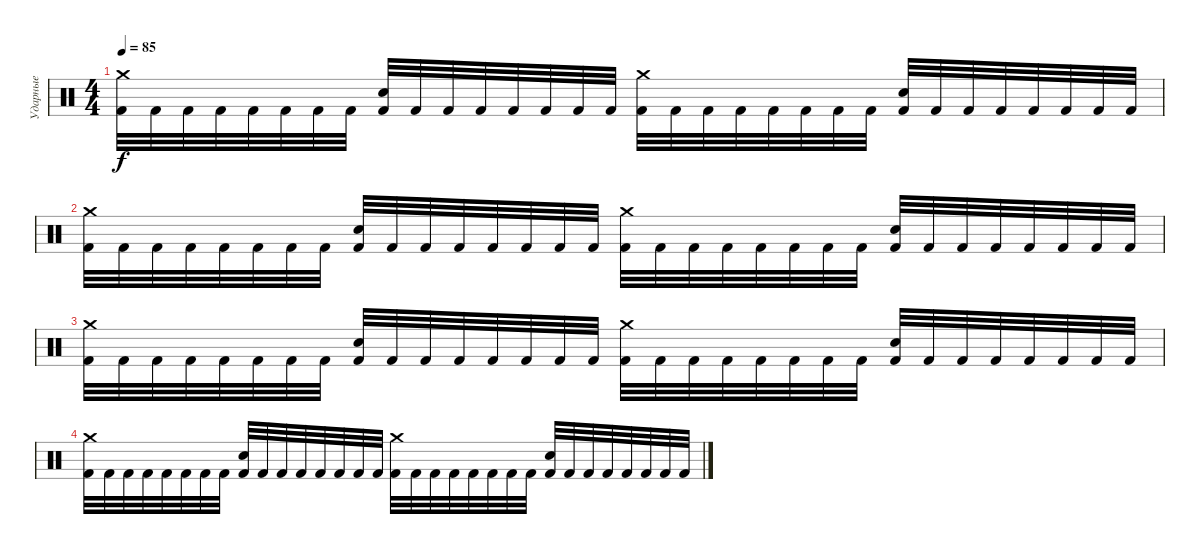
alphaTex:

\track ("Ударные" "Ударные") {instrument percussion}
\staff {score}
\articulation defaults
\ts (4 4)
\tempo 85
\clef neutral
\ks c
("Crash medium (hit)" "Kick (hit) 2").32{dy f} "Kick (hit) 2".32 "Kick (hit) 2".32 "Kick (hit) 2".32 "Kick (hit) 2".32 "Kick (hit) 2".32 "Kick (hit) 2".32 "Kick (hit) 2".32 ("Electric Snare (hit)" "Kick (hit) 2").32 "Kick (hit) 2".32 "Kick (hit) 2".32 "Kick (hit) 2".32 "Kick (hit) 2".32 "Kick (hit) 2".32 "Kick (hit) 2".32 "Kick (hit) 2".32 ("Crash medium (hit)" "Kick (hit) 2").32 "Kick (hit) 2".32 "Kick (hit) 2".32 "Kick (hit) 2".32 "Kick (hit) 2".32 "Kick (hit) 2".32 "Kick (hit) 2".32 "Kick (hit) 2".32 ("Electric Snare (hit)" "Kick (hit) 2").32 "Kick (hit) 2".32 "Kick (hit) 2".32 "Kick (hit) 2".32 "Kick (hit) 2".32 "Kick (hit) 2".32 "Kick (hit) 2".32 "Kick (hit) 2".32 |
("Crash medium (hit)" "Kick (hit) 2").32 "Kick (hit) 2".32 "Kick (hit) 2".32 "Kick (hit) 2".32 "Kick (hit) 2".32 "Kick (hit) 2".32 "Kick (hit) 2".32 "Kick (hit) 2".32 ("Electric Snare (hit)" "Kick (hit) 2").32 "Kick (hit) 2".32 "Kick (hit) 2".32 "Kick (hit) 2".32 "Kick (hit) 2".32 "Kick (hit) 2".32 "Kick (hit) 2".32 "Kick (hit) 2".32 ("Crash medium (hit)" "Kick (hit) 2").32 "Kick (hit) 2".32 "Kick (hit) 2".32 "Kick (hit) 2".32 "Kick (hit) 2".32 "Kick (hit) 2".32 "Kick (hit) 2".32 "Kick (hit) 2".32 ("Electric Snare (hit)" "Kick (hit) 2").32 "Kick (hit) 2".32 "Kick (hit) 2".32 "Kick (hit) 2".32 "Kick (hit) 2".32 "Kick (hit) 2".32 "Kick (hit) 2".32 "Kick (hit) 2".32 |
("Crash medium (hit)" "Kick (hit) 2").32 "Kick (hit) 2".32 "Kick (hit) 2".32 "Kick (hit) 2".32 "Kick (hit) 2".32 "Kick (hit) 2".32 "Kick (hit) 2".32 "Kick (hit) 2".32 ("Electric Snare (hit)" "Kick (hit) 2").32 "Kick (hit) 2".32 "Kick (hit) 2".32 "Kick (hit) 2".32 "Kick (hit) 2".32 "Kick (hit) 2".32 "Kick (hit) 2".32 "Kick (hit) 2".32 ("Crash medium (hit)" "Kick (hit) 2").32 "Kick (hit) 2".32 "Kick (hit) 2".32 "Kick (hit) 2".32 "Kick (hit) 2".32 "Kick (hit) 2".32 "Kick (hit) 2".32 "Kick (hit) 2".32 ("Electric Snare (hit)" "Kick (hit) 2").32 "Kick (hit) 2".32 "Kick (hit) 2".32 "Kick (hit) 2".32 "Kick (hit) 2".32 "Kick (hit) 2".32 "Kick (hit) 2".32 "Kick (hit) 2".32 |
("Crash medium (hit)" "Kick (hit) 2").32 "Kick (hit) 2".32 "Kick (hit) 2".32 "Kick (hit) 2".32 "Kick (hit) 2".32 "Kick (hit) 2".32 "Kick (hit) 2".32 "Kick (hit) 2".32 ("Electric Snare (hit)" "Kick (hit) 2").32 "Kick (hit) 2".32 "Kick (hit) 2".32 "Kick (hit) 2".32 "Kick (hit) 2".32 "Kick (hit) 2".32 "Kick (hit) 2".32 "Kick (hit) 2".32 ("Crash medium (hit)" "Kick (hit) 2").32 "Kick (hit) 2".32 "Kick (hit) 2".32 "Kick (hit) 2".32 "Kick (hit) 2".32 "Kick (hit) 2".32 "Kick (hit) 2".32 "Kick (hit) 2".32 ("Electric Snare (hit)" "Kick (hit) 2").32 "Kick (hit) 2".32 "Kick (hit) 2".32 "Kick (hit) 2".32 "Kick (hit) 2".32 "Kick (hit) 2".32 "Kick (hit) 2".32 "Kick (hit) 2".32
